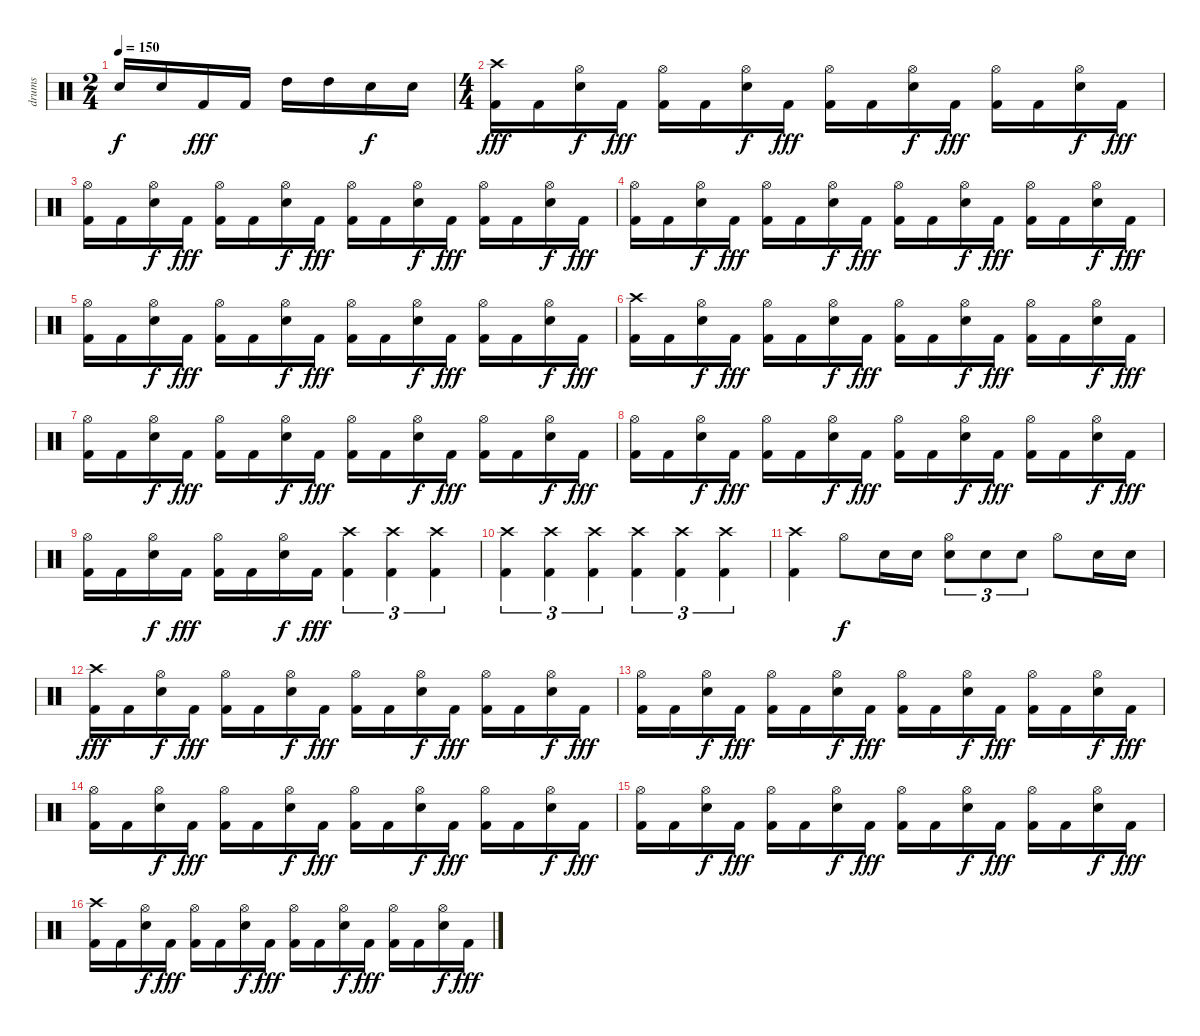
\track ("drums" "drums") {instrument percussion}
\staff {score}
\articulation defaults
\ts (2 4)
\tempo 150
\clef neutral
\ks c "Snare (hit) 2".16{dy f} "Snare (hit) 2".16 "Kick (hit) 2".16{dy fff} "Kick (hit) 2".16 "High Tom (hit)".16 "High Tom (hit)".16 "Snare (hit) 2".16{dy f} "Snare (hit) 2".16
|
\ts (4 4)
("Crash high (hit)" "Kick (hit) 2").16{dy fff} "Kick (hit) 2".16 ("Hi-Hat (open)" "Snare (hit) 2").16{dy f} "Kick (hit) 2".16{dy fff} ("Hi-Hat (open)" "Kick (hit) 2").16 "Kick (hit) 2".16 ("Hi-Hat (open)" "Snare (hit) 2").16{dy f} "Kick (hit) 2".16{dy fff} ("Hi-Hat (open)" "Kick (hit) 2").16 "Kick (hit) 2".16 ("Hi-Hat (open)" "Snare (hit) 2").16{dy f} "Kick (hit) 2".16{dy fff} ("Hi-Hat (open)" "Kick (hit) 2").16 "Kick (hit) 2".16 ("Hi-Hat (open)" "Snare (hit) 2").16{dy f} "Kick (hit) 2".16{dy fff} |
("Hi-Hat (open)" "Kick (hit) 2").16 "Kick (hit) 2".16 ("Hi-Hat (open)" "Snare (hit) 2").16{dy f} "Kick (hit) 2".16{dy fff} ("Hi-Hat (open)" "Kick (hit) 2").16 "Kick (hit) 2".16 ("Hi-Hat (open)" "Snare (hit) 2").16{dy f} "Kick (hit) 2".16{dy fff} ("Hi-Hat (open)" "Kick (hit) 2").16 "Kick (hit) 2".16 ("Hi-Hat (open)" "Snare (hit) 2").16{dy f} "Kick (hit) 2".16{dy fff} ("Hi-Hat (open)" "Kick (hit) 2").16 "Kick (hit) 2".16 ("Hi-Hat (open)" "Snare (hit) 2").16{dy f} "Kick (hit) 2".16{dy fff} |
("Hi-Hat (open)" "Kick (hit) 2").16 "Kick (hit) 2".16 ("Hi-Hat (open)" "Snare (hit) 2").16{dy f} "Kick (hit) 2".16{dy fff} ("Hi-Hat (open)" "Kick (hit) 2").16 "Kick (hit) 2".16 ("Hi-Hat (open)" "Snare (hit) 2").16{dy f} "Kick (hit) 2".16{dy fff} ("Hi-Hat (open)" "Kick (hit) 2").16 "Kick (hit) 2".16 ("Hi-Hat (open)" "Snare (hit) 2").16{dy f} "Kick (hit) 2".16{dy fff} ("Hi-Hat (open)" "Kick (hit) 2").16 "Kick (hit) 2".16 ("Hi-Hat (open)" "Snare (hit) 2").16{dy f} "Kick (hit) 2".16{dy fff} |
("Hi-Hat (open)" "Kick (hit) 2").16 "Kick (hit) 2".16 ("Hi-Hat (open)" "Snare (hit) 2").16{dy f} "Kick (hit) 2".16{dy fff} ("Hi-Hat (open)" "Kick (hit) 2").16 "Kick (hit) 2".16 ("Hi-Hat (open)" "Snare (hit) 2").16{dy f} "Kick (hit) 2".16{dy fff} ("Hi-Hat (open)" "Kick (hit) 2").16 "Kick (hit) 2".16 ("Hi-Hat (open)" "Snare (hit) 2").16{dy f} "Kick (hit) 2".16{dy fff} ("Hi-Hat (open)" "Kick (hit) 2").16 "Kick (hit) 2".16 ("Hi-Hat (open)" "Snare (hit) 2").16{dy f} "Kick (hit) 2".16{dy fff} |
("Crash high (hit)" "Kick (hit) 2").16 "Kick (hit) 2".16 ("Hi-Hat (open)" "Snare (hit) 2").16{dy f} "Kick (hit) 2".16{dy fff} ("Hi-Hat (open)" "Kick (hit) 2").16 "Kick (hit) 2".16 ("Hi-Hat (open)" "Snare (hit) 2").16{dy f} "Kick (hit) 2".16{dy fff} ("Hi-Hat (open)" "Kick (hit) 2").16 "Kick (hit) 2".16 ("Hi-Hat (open)" "Snare (hit) 2").16{dy f} "Kick (hit) 2".16{dy fff} ("Hi-Hat (open)" "Kick (hit) 2").16 "Kick (hit) 2".16 ("Hi-Hat (open)" "Snare (hit) 2").16{dy f} "Kick (hit) 2".16{dy fff} |
("Hi-Hat (open)" "Kick (hit) 2").16 "Kick (hit) 2".16 ("Hi-Hat (open)" "Snare (hit) 2").16{dy f} "Kick (hit) 2".16{dy fff} ("Hi-Hat (open)" "Kick (hit) 2").16 "Kick (hit) 2".16 ("Hi-Hat (open)" "Snare (hit) 2").16{dy f} "Kick (hit) 2".16{dy fff} ("Hi-Hat (open)" "Kick (hit) 2").16 "Kick (hit) 2".16 ("Hi-Hat (open)" "Snare (hit) 2").16{dy f} "Kick (hit) 2".16{dy fff} ("Hi-Hat (open)" "Kick (hit) 2").16 "Kick (hit) 2".16 ("Hi-Hat (open)" "Snare (hit) 2").16{dy f} "Kick (hit) 2".16{dy fff} |
("Hi-Hat (open)" "Kick (hit) 2").16 "Kick (hit) 2".16 ("Hi-Hat (open)" "Snare (hit) 2").16{dy f} "Kick (hit) 2".16{dy fff} ("Hi-Hat (open)" "Kick (hit) 2").16 "Kick (hit) 2".16 ("Hi-Hat (open)" "Snare (hit) 2").16{dy f} "Kick (hit) 2".16{dy fff} ("Hi-Hat (open)" "Kick (hit) 2").16 "Kick (hit) 2".16 ("Hi-Hat (open)" "Snare (hit) 2").16{dy f} "Kick (hit) 2".16{dy fff} ("Hi-Hat (open)" "Kick (hit) 2").16 "Kick (hit) 2".16 ("Hi-Hat (open)" "Snare (hit) 2").16{dy f} "Kick (hit) 2".16{dy fff} |
("Hi-Hat (open)" "Kick (hit) 2").16 "Kick (hit) 2".16 ("Hi-Hat (open)" "Snare (hit) 2").16{dy f} "Kick (hit) 2".16{dy fff} ("Hi-Hat (open)" "Kick (hit) 2").16 "Kick (hit) 2".16 ("Hi-Hat (open)" "Snare (hit) 2").16{dy f} "Kick (hit) 2".16{dy fff} ("Crash high (hit)" "Kick (hit) 2").4{tu (3 2)} ("Crash high (hit)" "Kick (hit) 2").4{tu (3 2)} ("Crash high (hit)" "Kick (hit) 2").4{tu (3 2)} |
("Crash high (hit)" "Kick (hit) 2").4{tu (3 2)} ("Crash high (hit)" "Kick (hit) 2").4{tu (3 2)} ("Crash high (hit)" "Kick (hit) 2").4{tu (3 2)} ("Crash high (hit)" "Kick (hit) 2").4{tu (3 2)} ("Crash high (hit)" "Kick (hit) 2").4{tu (3 2)} ("Crash high (hit)" "Kick (hit) 2").4{tu (3 2)} |
("Crash high (hit)" "Kick (hit) 2").4 "Hi-Hat (open)".8{dy f} "Snare (hit) 2".16 "Snare (hit) 2".16 ("Hi-Hat (open)" "Snare (hit) 2").8{tu (3 2)} "Snare (hit) 2".8{tu (3 2)} "Snare (hit) 2".8{tu (3 2)} "Hi-Hat (open)".8 "Snare (hit) 2".16 "Snare (hit) 2".16 |
("Crash high (hit)" "Kick (hit) 2").16{dy fff} "Kick (hit) 2".16 ("Hi-Hat (open)" "Snare (hit) 2").16{dy f} "Kick (hit) 2".16{dy fff} ("Hi-Hat (open)" "Kick (hit) 2").16 "Kick (hit) 2".16 ("Hi-Hat (open)" "Snare (hit) 2").16{dy f} "Kick (hit) 2".16{dy fff} ("Hi-Hat (open)" "Kick (hit) 2").16 "Kick (hit) 2".16 ("Hi-Hat (open)" "Snare (hit) 2").16{dy f} "Kick (hit) 2".16{dy fff} ("Hi-Hat (open)" "Kick (hit) 2").16 "Kick (hit) 2".16 ("Hi-Hat (open)" "Snare (hit) 2").16{dy f} "Kick (hit) 2".16{dy fff} |
("Hi-Hat (open)" "Kick (hit) 2").16 "Kick (hit) 2".16 ("Hi-Hat (open)" "Snare (hit) 2").16{dy f} "Kick (hit) 2".16{dy fff} ("Hi-Hat (open)" "Kick (hit) 2").16 "Kick (hit) 2".16 ("Hi-Hat (open)" "Snare (hit) 2").16{dy f} "Kick (hit) 2".16{dy fff} ("Hi-Hat (open)" "Kick (hit) 2").16 "Kick (hit) 2".16 ("Hi-Hat (open)" "Snare (hit) 2").16{dy f} "Kick (hit) 2".16{dy fff} ("Hi-Hat (open)" "Kick (hit) 2").16 "Kick (hit) 2".16 ("Hi-Hat (open)" "Snare (hit) 2").16{dy f} "Kick (hit) 2".16{dy fff} |
("Hi-Hat (open)" "Kick (hit) 2").16 "Kick (hit) 2".16 ("Hi-Hat (open)" "Snare (hit) 2").16{dy f} "Kick (hit) 2".16{dy fff} ("Hi-Hat (open)" "Kick (hit) 2").16 "Kick (hit) 2".16 ("Hi-Hat (open)" "Snare (hit) 2").16{dy f} "Kick (hit) 2".16{dy fff} ("Hi-Hat (open)" "Kick (hit) 2").16 "Kick (hit) 2".16 ("Hi-Hat (open)" "Snare (hit) 2").16{dy f} "Kick (hit) 2".16{dy fff} ("Hi-Hat (open)" "Kick (hit) 2").16 "Kick (hit) 2".16 ("Hi-Hat (open)" "Snare (hit) 2").16{dy f} "Kick (hit) 2".16{dy fff} |
("Hi-Hat (open)" "Kick (hit) 2").16 "Kick (hit) 2".16 ("Hi-Hat (open)" "Snare (hit) 2").16{dy f} "Kick (hit) 2".16{dy fff} ("Hi-Hat (open)" "Kick (hit) 2").16 "Kick (hit) 2".16 ("Hi-Hat (open)" "Snare (hit) 2").16{dy f} "Kick (hit) 2".16{dy fff} ("Hi-Hat (open)" "Kick (hit) 2").16 "Kick (hit) 2".16 ("Hi-Hat (open)" "Snare (hit) 2").16{dy f} "Kick (hit) 2".16{dy fff} ("Hi-Hat (open)" "Kick (hit) 2").16 "Kick (hit) 2".16 ("Hi-Hat (open)" "Snare (hit) 2").16{dy f} "Kick (hit) 2".16{dy fff} |
("Crash high (hit)" "Kick (hit) 2").16 "Kick (hit) 2".16 ("Hi-Hat (open)" "Snare (hit) 2").16{dy f} "Kick (hit) 2".16{dy fff} ("Hi-Hat (open)" "Kick (hit) 2").16 "Kick (hit) 2".16 ("Hi-Hat (open)" "Snare (hit) 2").16{dy f} "Kick (hit) 2".16{dy fff} ("Hi-Hat (open)" "Kick (hit) 2").16 "Kick (hit) 2".16 ("Hi-Hat (open)" "Snare (hit) 2").16{dy f} "Kick (hit) 2".16{dy fff} ("Hi-Hat (open)" "Kick (hit) 2").16 "Kick (hit) 2".16 ("Hi-Hat (open)" "Snare (hit) 2").16{dy f} "Kick (hit) 2".16{dy fff}
